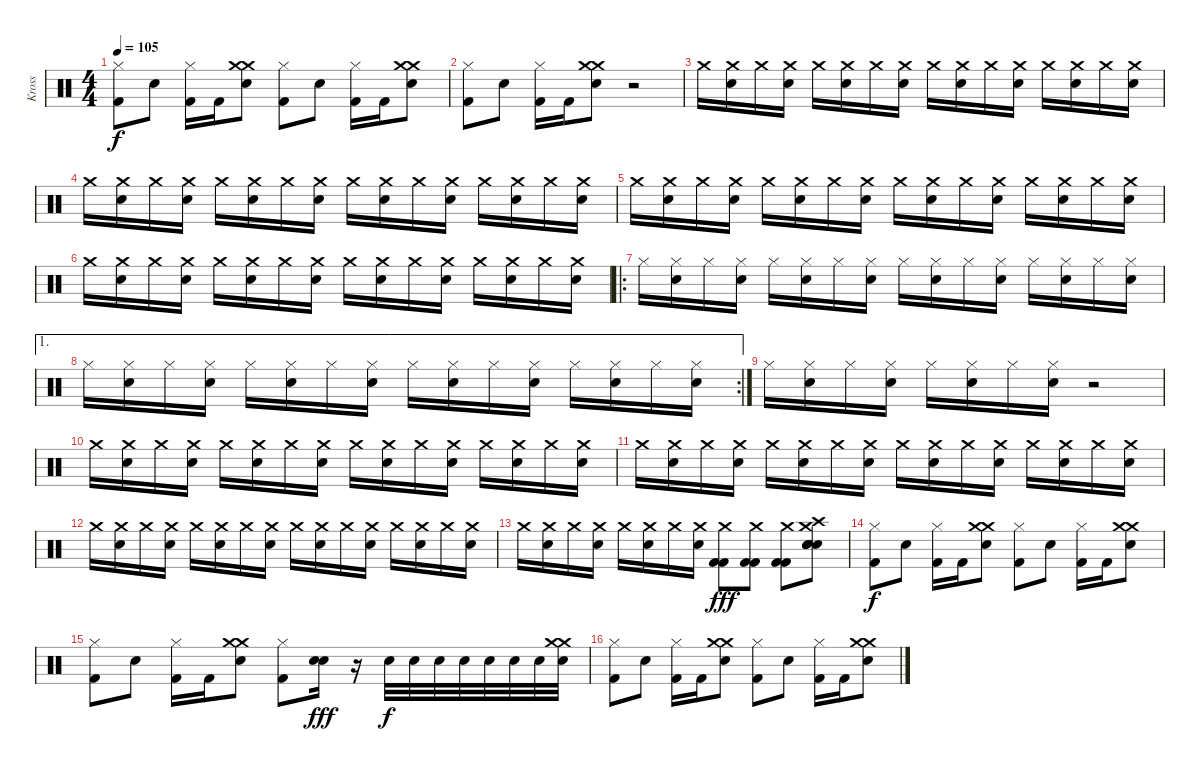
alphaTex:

\track ("Kross" "Kross") {instrument percussion}
\staff {score}
\articulation defaults
\ts (4 4)
\tempo 105
\clef neutral
\ks c
("Hi-Hat (closed)" "Kick (hit) 2").8{dy f} "Snare (hit) 2".8 ("Hi-Hat (closed)" "Kick (hit) 2").16 "Kick (hit) 2".16 ("Crash medium (hit)" "Crash medium (hit)" "Snare (hit) 2").8 ("Hi-Hat (closed)" "Kick (hit) 2").8 "Snare (hit) 2".8 ("Hi-Hat (closed)" "Kick (hit) 2").16 "Kick (hit) 2".16 ("Crash medium (hit)" "Crash medium (hit)" "Snare (hit) 2").8 |
("Hi-Hat (closed)" "Kick (hit) 2").8 "Snare (hit) 2".8 ("Hi-Hat (closed)" "Kick (hit) 2").16 "Kick (hit) 2".16 ("Crash medium (hit)" "Crash medium (hit)" "Snare (hit) 2").8 r.2 |
"Crash medium (hit)".16 ("Crash medium (hit)" "Snare (hit) 2").16 "Crash medium (hit)".16 ("Crash medium (hit)" "Snare (hit) 2").16 "Crash medium (hit)".16 ("Crash medium (hit)" "Snare (hit) 2").16 "Crash medium (hit)".16 ("Crash medium (hit)" "Snare (hit) 2").16 "Crash medium (hit)".16 ("Crash medium (hit)" "Snare (hit) 2").16 "Crash medium (hit)".16 ("Crash medium (hit)" "Snare (hit) 2").16 "Crash medium (hit)".16 ("Crash medium (hit)" "Snare (hit) 2").16 "Crash medium (hit)".16 ("Crash medium (hit)" "Snare (hit) 2").16 |
"Crash medium (hit)".16 ("Crash medium (hit)" "Snare (hit) 2").16 "Crash medium (hit)".16 ("Crash medium (hit)" "Snare (hit) 2").16 "Crash medium (hit)".16 ("Crash medium (hit)" "Snare (hit) 2").16 "Crash medium (hit)".16 ("Crash medium (hit)" "Snare (hit) 2").16 "Crash medium (hit)".16 ("Crash medium (hit)" "Snare (hit) 2").16 "Crash medium (hit)".16 ("Crash medium (hit)" "Snare (hit) 2").16 "Crash medium (hit)".16 ("Crash medium (hit)" "Snare (hit) 2").16 "Crash medium (hit)".16 ("Crash medium (hit)" "Snare (hit) 2").16 |
"Crash medium (hit)".16 ("Crash medium (hit)" "Snare (hit) 2").16 "Crash medium (hit)".16 ("Crash medium (hit)" "Snare (hit) 2").16 "Crash medium (hit)".16 ("Crash medium (hit)" "Snare (hit) 2").16 "Crash medium (hit)".16 ("Crash medium (hit)" "Snare (hit) 2").16 "Crash medium (hit)".16 ("Crash medium (hit)" "Snare (hit) 2").16 "Crash medium (hit)".16 ("Crash medium (hit)" "Snare (hit) 2").16 "Crash medium (hit)".16 ("Crash medium (hit)" "Snare (hit) 2").16 "Crash medium (hit)".16 ("Crash medium (hit)" "Snare (hit) 2").16 |
"Crash medium (hit)".16 ("Crash medium (hit)" "Snare (hit) 2").16 "Crash medium (hit)".16 ("Crash medium (hit)" "Snare (hit) 2").16 "Crash medium (hit)".16 ("Crash medium (hit)" "Snare (hit) 2").16 "Crash medium (hit)".16 ("Crash medium (hit)" "Snare (hit) 2").16 "Crash medium (hit)".16 ("Crash medium (hit)" "Snare (hit) 2").16 "Crash medium (hit)".16 ("Crash medium (hit)" "Snare (hit) 2").16 "Crash medium (hit)".16 ("Crash medium (hit)" "Snare (hit) 2").16 "Crash medium (hit)".16 ("Crash medium (hit)" "Snare (hit) 2").16 |
\ro "Hi-Hat (closed)".16
("Hi-Hat (closed)" "Snare (hit) 2").16 "Hi-Hat (closed)".16 ("Hi-Hat (closed)" "Snare (hit) 2").16 "Hi-Hat (closed)".16 ("Hi-Hat (closed)" "Snare (hit) 2").16 "Hi-Hat (closed)".16 ("Hi-Hat (closed)" "Snare (hit) 2").16 "Hi-Hat (closed)".16 ("Hi-Hat (closed)" "Snare (hit) 2").16 "Hi-Hat (closed)".16 ("Hi-Hat (closed)" "Snare (hit) 2").16 "Hi-Hat (closed)".16 ("Hi-Hat (closed)" "Snare (hit) 2").16 "Hi-Hat (closed)".16 ("Hi-Hat (closed)" "Snare (hit) 2").16 |
\ae 1
\rc 2 "Hi-Hat (closed)".16
("Hi-Hat (closed)" "Snare (hit) 2").16 "Hi-Hat (closed)".16 ("Hi-Hat (closed)" "Snare (hit) 2").16 "Hi-Hat (closed)".16 ("Hi-Hat (closed)" "Snare (hit) 2").16 "Hi-Hat (closed)".16 ("Hi-Hat (closed)" "Snare (hit) 2").16 "Hi-Hat (closed)".16 ("Hi-Hat (closed)" "Snare (hit) 2").16 "Hi-Hat (closed)".16 ("Hi-Hat (closed)" "Snare (hit) 2").16 "Hi-Hat (closed)".16 ("Hi-Hat (closed)" "Snare (hit) 2").16 "Hi-Hat (closed)".16 ("Hi-Hat (closed)" "Snare (hit) 2").16 |
"Hi-Hat (closed)".16 ("Hi-Hat (closed)" "Snare (hit) 2").16 "Hi-Hat (closed)".16 ("Hi-Hat (closed)" "Snare (hit) 2").16 "Hi-Hat (closed)".16 ("Hi-Hat (closed)" "Snare (hit) 2").16 "Hi-Hat (closed)".16 ("Hi-Hat (closed)" "Snare (hit) 2").16 r.2 |
"Crash medium (hit)".16 ("Crash medium (hit)" "Snare (hit) 2").16 "Crash medium (hit)".16 ("Crash medium (hit)" "Snare (hit) 2").16 "Crash medium (hit)".16 ("Crash medium (hit)" "Snare (hit) 2").16 "Crash medium (hit)".16 ("Crash medium (hit)" "Snare (hit) 2").16 "Crash medium (hit)".16 ("Crash medium (hit)" "Snare (hit) 2").16 "Crash medium (hit)".16 ("Crash medium (hit)" "Snare (hit) 2").16 "Crash medium (hit)".16 ("Crash medium (hit)" "Snare (hit) 2").16 "Crash medium (hit)".16 ("Crash medium (hit)" "Snare (hit) 2").16 |
"Crash medium (hit)".16 ("Crash medium (hit)" "Snare (hit) 2").16 "Crash medium (hit)".16 ("Crash medium (hit)" "Snare (hit) 2").16 "Crash medium (hit)".16 ("Crash medium (hit)" "Snare (hit) 2").16 "Crash medium (hit)".16 ("Crash medium (hit)" "Snare (hit) 2").16 "Crash medium (hit)".16 ("Crash medium (hit)" "Snare (hit) 2").16 "Crash medium (hit)".16 ("Crash medium (hit)" "Snare (hit) 2").16 "Crash medium (hit)".16 ("Crash medium (hit)" "Snare (hit) 2").16 "Crash medium (hit)".16 ("Crash medium (hit)" "Snare (hit) 2").16 |
"Crash medium (hit)".16 ("Crash medium (hit)" "Snare (hit) 2").16 "Crash medium (hit)".16 ("Crash medium (hit)" "Snare (hit) 2").16 "Crash medium (hit)".16 ("Crash medium (hit)" "Snare (hit) 2").16 "Crash medium (hit)".16 ("Crash medium (hit)" "Snare (hit) 2").16 "Crash medium (hit)".16 ("Crash medium (hit)" "Snare (hit) 2").16 "Crash medium (hit)".16 ("Crash medium (hit)" "Snare (hit) 2").16 "Crash medium (hit)".16 ("Crash medium (hit)" "Snare (hit) 2").16 "Crash medium (hit)".16 ("Crash medium (hit)" "Snare (hit) 2").16 |
"Crash medium (hit)".16 ("Crash medium (hit)" "Snare (hit) 2").16 "Crash medium (hit)".16 ("Crash medium (hit)" "Snare (hit) 2").16 "Crash medium (hit)".16 ("Crash medium (hit)" "Snare (hit) 2").16 "Crash medium (hit)".16 ("Crash medium (hit)" "Snare (hit) 2").16 ("Crash medium (hit)" "Kick (hit) 2" "Kick (hit) 2").8{dy fff} ("Crash medium (hit)" "Kick (hit) 2" "Kick (hit) 2").8 ("Crash medium (hit)" "Kick (hit) 2" "Kick (hit) 2").8 ("Crash high (hit)" "Crash medium (hit)" "Snare (hit) 2" "Snare (hit) 2" "Snare (hit) 2" "Snare (hit) 2").8 |
("Hi-Hat (closed)" "Kick (hit) 2").8{dy f} "Snare (hit) 2".8 ("Hi-Hat (closed)" "Kick (hit) 2").16 "Kick (hit) 2".16 ("Crash medium (hit)" "Crash medium (hit)" "Snare (hit) 2").8 ("Hi-Hat (closed)" "Kick (hit) 2").8 "Snare (hit) 2".8 ("Hi-Hat (closed)" "Kick (hit) 2").16 "Kick (hit) 2".16 ("Crash medium (hit)" "Crash medium (hit)" "Snare (hit) 2").8 |
("Hi-Hat (closed)" "Kick (hit) 2").8 "Snare (hit) 2".8 ("Hi-Hat (closed)" "Kick (hit) 2").16 "Kick (hit) 2".16 ("Crash medium (hit)" "Crash medium (hit)" "Snare (hit) 2").8 ("Hi-Hat (closed)" "Kick (hit) 2").8 ("Snare (hit) 2" "Snare (hit) 2").16{dy fff} r.16 "Snare (hit) 2".32{dy f} "Snare (hit) 2".32 "Snare (hit) 2".32 "Snare (hit) 2".32 "Snare (hit) 2".32 "Snare (hit) 2".32 "Snare (hit) 2".32 ("Crash medium (hit)" "Crash medium (hit)" "Snare (hit) 2").32 |
("Hi-Hat (closed)" "Kick (hit) 2").8 "Snare (hit) 2".8 ("Hi-Hat (closed)" "Kick (hit) 2").16 "Kick (hit) 2".16 ("Crash medium (hit)" "Crash medium (hit)" "Snare (hit) 2").8 ("Hi-Hat (closed)" "Kick (hit) 2").8 "Snare (hit) 2".8 ("Hi-Hat (closed)" "Kick (hit) 2").16 "Kick (hit) 2".16 ("Crash medium (hit)" "Crash medium (hit)" "Snare (hit) 2").8
